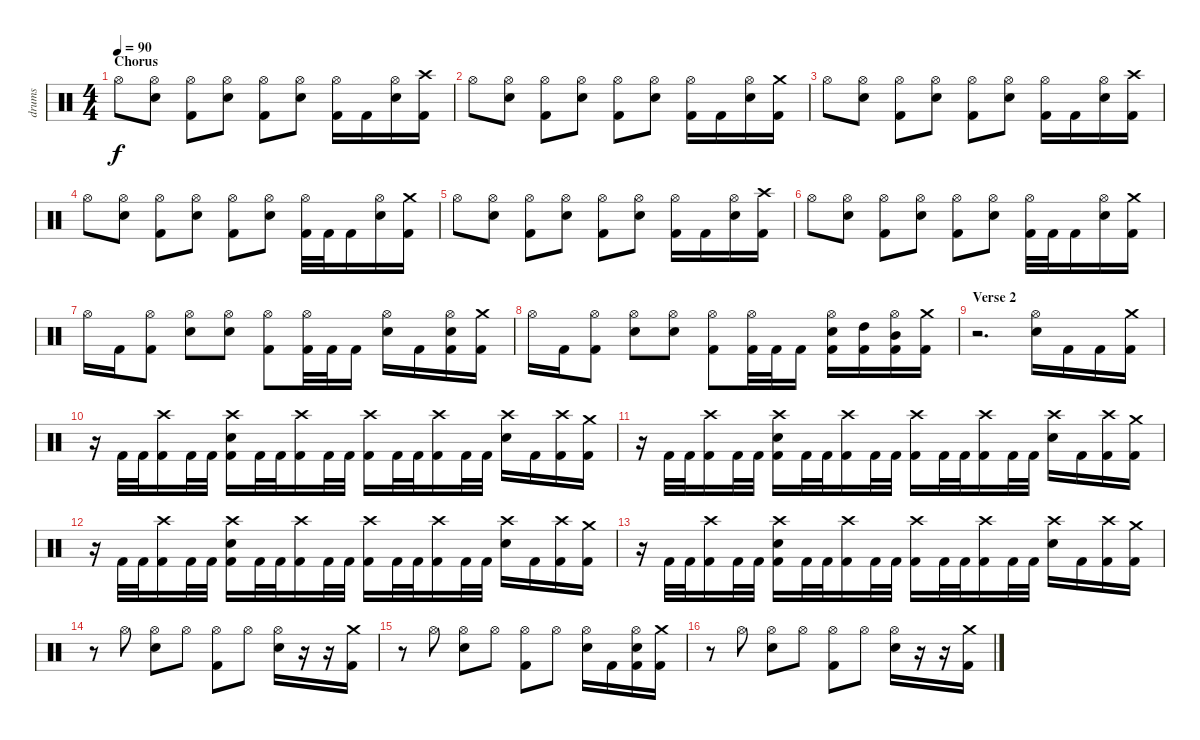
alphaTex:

\track ("drums" "drums") {instrument percussion}
\staff {score}
\articulation defaults
\ts (4 4)
\section ("" "Chorus")
\tempo 90
\clef neutral
\ks c "Hi-Hat (open)".8{dy f}
("Hi-Hat (open)" "Electric Snare (hit)").8 ("Hi-Hat (open)" "Kick (hit) 2").8 ("Hi-Hat (open)" "Electric Snare (hit)").8 ("Hi-Hat (open)" "Kick (hit) 2").8 ("Hi-Hat (open)" "Electric Snare (hit)").8 ("Hi-Hat (open)" "Kick (hit) 2").16 "Kick (hit) 2".16 ("Hi-Hat (open)" "Electric Snare (hit)").16 ("Crash high (hit)" "Kick (hit) 2").16 |
"Hi-Hat (open)".8 ("Hi-Hat (open)" "Electric Snare (hit)").8 ("Hi-Hat (open)" "Kick (hit) 2").8 ("Hi-Hat (open)" "Electric Snare (hit)").8 ("Hi-Hat (open)" "Kick (hit) 2").8 ("Hi-Hat (open)" "Electric Snare (hit)").8 ("Hi-Hat (open)" "Kick (hit) 2").16 "Kick (hit) 2".16 ("Hi-Hat (open)" "Electric Snare (hit)").16 ("Crash medium (hit)" "Kick (hit) 2").16 |
"Hi-Hat (open)".8 ("Hi-Hat (open)" "Electric Snare (hit)").8 ("Hi-Hat (open)" "Kick (hit) 2").8 ("Hi-Hat (open)" "Electric Snare (hit)").8 ("Hi-Hat (open)" "Kick (hit) 2").8 ("Hi-Hat (open)" "Electric Snare (hit)").8 ("Hi-Hat (open)" "Kick (hit) 2").16 "Kick (hit) 2".16 ("Hi-Hat (open)" "Electric Snare (hit)").16 ("Crash high (hit)" "Kick (hit) 2").16 |
"Hi-Hat (open)".8 ("Hi-Hat (open)" "Electric Snare (hit)").8 ("Hi-Hat (open)" "Kick (hit) 2").8 ("Hi-Hat (open)" "Electric Snare (hit)").8 ("Hi-Hat (open)" "Kick (hit) 2").8 ("Hi-Hat (open)" "Electric Snare (hit)").8 ("Hi-Hat (open)" "Kick (hit) 2").32 "Kick (hit) 2".32 "Kick (hit) 2".16 ("Hi-Hat (open)" "Electric Snare (hit)").16 ("Crash medium (hit)" "Kick (hit) 2").16 |
"Hi-Hat (open)".8 ("Hi-Hat (open)" "Electric Snare (hit)").8 ("Hi-Hat (open)" "Kick (hit) 2").8 ("Hi-Hat (open)" "Electric Snare (hit)").8 ("Hi-Hat (open)" "Kick (hit) 2").8 ("Hi-Hat (open)" "Electric Snare (hit)").8 ("Hi-Hat (open)" "Kick (hit) 2").16 "Kick (hit) 2".16 ("Hi-Hat (open)" "Electric Snare (hit)").16 ("Crash high (hit)" "Kick (hit) 2").16 |
"Hi-Hat (open)".8 ("Hi-Hat (open)" "Electric Snare (hit)").8 ("Hi-Hat (open)" "Kick (hit) 2").8 ("Hi-Hat (open)" "Electric Snare (hit)").8 ("Hi-Hat (open)" "Kick (hit) 2").8 ("Hi-Hat (open)" "Electric Snare (hit)").8 ("Hi-Hat (open)" "Kick (hit) 2").32 "Kick (hit) 2".32 "Kick (hit) 2".16 ("Hi-Hat (open)" "Electric Snare (hit)").16 ("Crash medium (hit)" "Kick (hit) 2").16 |
"Hi-Hat (open)".16 "Kick (hit) 2".16 ("Hi-Hat (open)" "Kick (hit) 2").8 ("Hi-Hat (open)" "Electric Snare (hit)").8 ("Hi-Hat (open)" "Electric Snare (hit)").8 ("Hi-Hat (open)" "Kick (hit) 2").8 ("Hi-Hat (open)" "Kick (hit) 2").32 "Kick (hit) 2".32 "Kick (hit) 2".16 ("Hi-Hat (open)" "Electric Snare (hit)").16 "Kick (hit) 2".16 ("Hi-Hat (open)" "Electric Snare (hit)" "Kick (hit) 2").16 ("Crash medium (hit)" "Kick (hit) 2").16 |
"Hi-Hat (open)".16 "Kick (hit) 2".16 ("Hi-Hat (open)" "Kick (hit) 2").8 ("Hi-Hat (open)" "Electric Snare (hit)").8 ("Hi-Hat (open)" "Electric Snare (hit)").8 ("Hi-Hat (open)" "Kick (hit) 2").8 ("Hi-Hat (open)" "Kick (hit) 2").32 "Kick (hit) 2".32 "Kick (hit) 2".16 ("Hi-Hat (open)" "Electric Snare (hit)" "Kick (hit) 2").16 ("High Tom (hit)" "Kick (hit) 2").16 ("Hi-Hat (open)" "Mid Tom (hit)" "Kick (hit) 2").16 ("Crash medium (hit)" "Kick (hit) 2").16 |
\section ("" "Verse 2")
r.2{d} ("Hi-Hat (open)" "Electric Snare (hit)").16 "Kick (hit) 2".16 "Kick (hit) 2".16 ("Crash medium (hit)" "Kick (hit) 2").16 |
r.16 "Kick (hit) 2".32 "Kick (hit) 2".32 ("Crash high (hit)" "Kick (hit) 2").16 "Kick (hit) 2".32 "Kick (hit) 2".32 ("Crash high (hit)" "Electric Snare (hit)" "Kick (hit) 2").16 "Kick (hit) 2".32 "Kick (hit) 2".32 ("Crash high (hit)" "Kick (hit) 2").16 "Kick (hit) 2".32 "Kick (hit) 2".32 ("Crash high (hit)" "Kick (hit) 2").16 "Kick (hit) 2".32 "Kick (hit) 2".32 ("Crash high (hit)" "Kick (hit) 2").16 "Kick (hit) 2".32 "Kick (hit) 2".32 ("Crash high (hit)" "Electric Snare (hit)").16 "Kick (hit) 2".16 ("Crash high (hit)" "Kick (hit) 2").16 ("Crash medium (hit)" "Kick (hit) 2").16 |
r.16 "Kick (hit) 2".32 "Kick (hit) 2".32 ("Crash high (hit)" "Kick (hit) 2").16 "Kick (hit) 2".32 "Kick (hit) 2".32 ("Crash high (hit)" "Electric Snare (hit)" "Kick (hit) 2").16 "Kick (hit) 2".32 "Kick (hit) 2".32 ("Crash high (hit)" "Kick (hit) 2").16 "Kick (hit) 2".32 "Kick (hit) 2".32 ("Crash high (hit)" "Kick (hit) 2").16 "Kick (hit) 2".32 "Kick (hit) 2".32 ("Crash high (hit)" "Kick (hit) 2").16 "Kick (hit) 2".32 "Kick (hit) 2".32 ("Crash high (hit)" "Electric Snare (hit)").16 "Kick (hit) 2".16 ("Crash high (hit)" "Kick (hit) 2").16 ("Crash medium (hit)" "Kick (hit) 2").16 |
r.16 "Kick (hit) 2".32 "Kick (hit) 2".32 ("Crash high (hit)" "Kick (hit) 2").16 "Kick (hit) 2".32 "Kick (hit) 2".32 ("Crash high (hit)" "Electric Snare (hit)" "Kick (hit) 2").16 "Kick (hit) 2".32 "Kick (hit) 2".32 ("Crash high (hit)" "Kick (hit) 2").16 "Kick (hit) 2".32 "Kick (hit) 2".32 ("Crash high (hit)" "Kick (hit) 2").16 "Kick (hit) 2".32 "Kick (hit) 2".32 ("Crash high (hit)" "Kick (hit) 2").16 "Kick (hit) 2".32 "Kick (hit) 2".32 ("Crash high (hit)" "Electric Snare (hit)").16 "Kick (hit) 2".16 ("Crash high (hit)" "Kick (hit) 2").16 ("Crash medium (hit)" "Kick (hit) 2").16 |
r.16 "Kick (hit) 2".32 "Kick (hit) 2".32 ("Crash high (hit)" "Kick (hit) 2").16 "Kick (hit) 2".32 "Kick (hit) 2".32 ("Crash high (hit)" "Electric Snare (hit)" "Kick (hit) 2").16 "Kick (hit) 2".32 "Kick (hit) 2".32 ("Crash high (hit)" "Kick (hit) 2").16 "Kick (hit) 2".32 "Kick (hit) 2".32 ("Crash high (hit)" "Kick (hit) 2").16 "Kick (hit) 2".32 "Kick (hit) 2".32 ("Crash high (hit)" "Kick (hit) 2").16 "Kick (hit) 2".32 "Kick (hit) 2".32 ("Crash high (hit)" "Electric Snare (hit)").16 "Kick (hit) 2".16 ("Crash high (hit)" "Kick (hit) 2").16 ("Crash medium (hit)" "Kick (hit) 2").16 |
r.8 "Hi-Hat (open)".8 ("Hi-Hat (open)" "Electric Snare (hit)").8 "Hi-Hat (open)".8 ("Hi-Hat (open)" "Kick (hit) 2").8 "Hi-Hat (open)".8 ("Hi-Hat (open)" "Electric Snare (hit)").16 r.16 r.16 ("Crash medium (hit)" "Kick (hit) 2").16 |
r.8 "Hi-Hat (open)".8 ("Hi-Hat (open)" "Electric Snare (hit)").8 "Hi-Hat (open)".8 ("Hi-Hat (open)" "Kick (hit) 2").8 "Hi-Hat (open)".8 ("Hi-Hat (open)" "Electric Snare (hit)").16 "Kick (hit) 2".16 ("Hi-Hat (open)" "Electric Snare (hit)" "Kick (hit) 2").16 ("Crash medium (hit)" "Kick (hit) 2").16 |
r.8 "Hi-Hat (open)".8 ("Hi-Hat (open)" "Electric Snare (hit)").8 "Hi-Hat (open)".8 ("Hi-Hat (open)" "Kick (hit) 2").8 "Hi-Hat (open)".8 ("Hi-Hat (open)" "Electric Snare (hit)").16 r.16 r.16 ("Crash medium (hit)" "Kick (hit) 2").16
